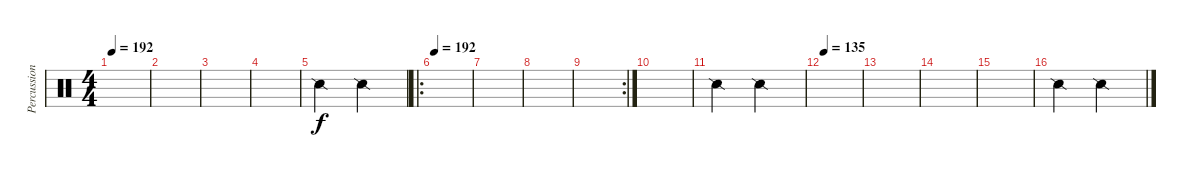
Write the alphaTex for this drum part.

\track ("Percussion" "Percussion") {instrument percussion}
\staff {score}
\articulation defaults
\ts (4 4)
\tempo 192
\clef neutral
\ks c
|
|
|
|
"Snare (side stick) 2".2 "Snare (side stick) 2".2 |
\ro
\tempo 192
|
|
|
\rc 2
|
|
"Snare (side stick) 2".2 "Snare (side stick) 2".2 |
\tempo 135
|
|
|
|
"Snare (side stick) 2".2 "Snare (side stick) 2".2
